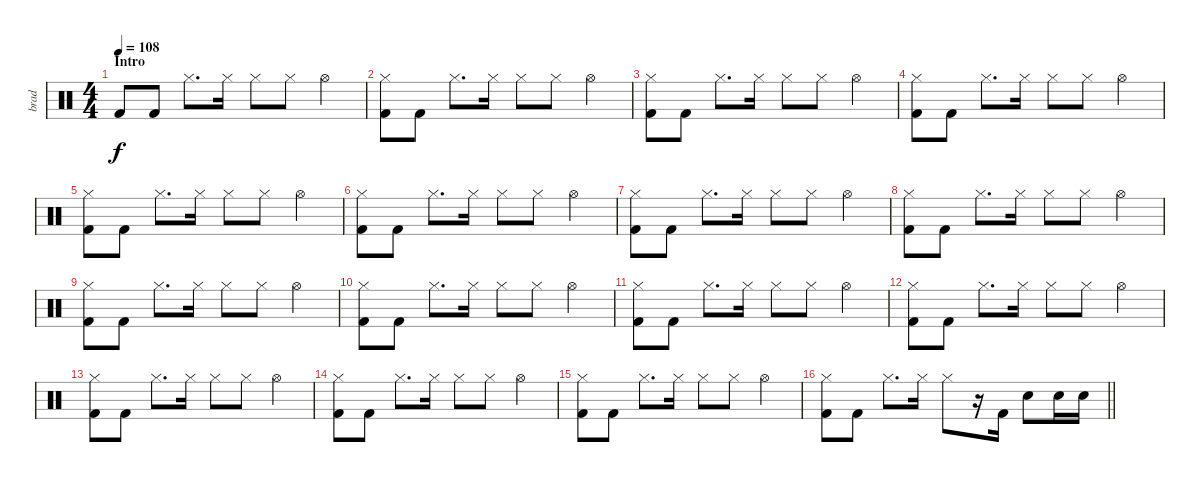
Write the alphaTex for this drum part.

\track ("brad" "brad") {instrument percussion}
\staff {score}
\articulation defaults
\ts (4 4)
\section ("" "Intro")
\tempo 108
\clef neutral
\ks c "Kick (hit) 2".8{dy f} "Kick (hit) 2".8 "Hi-Hat (closed)".8{d} "Hi-Hat (closed)".16 "Hi-Hat (closed)".8 "Hi-Hat (closed)".8 "Hi-Hat (open)".4
|
("Hi-Hat (closed)" "Kick (hit) 2").8 "Kick (hit) 2".8 "Hi-Hat (closed)".8{d} "Hi-Hat (closed)".16 "Hi-Hat (closed)".8 "Hi-Hat (closed)".8 "Hi-Hat (open)".4 |
("Hi-Hat (closed)" "Kick (hit) 2").8 "Kick (hit) 2".8 "Hi-Hat (closed)".8{d} "Hi-Hat (closed)".16 "Hi-Hat (closed)".8 "Hi-Hat (closed)".8 "Hi-Hat (open)".4 |
("Hi-Hat (closed)" "Kick (hit) 2").8 "Kick (hit) 2".8 "Hi-Hat (closed)".8{d} "Hi-Hat (closed)".16 "Hi-Hat (closed)".8 "Hi-Hat (closed)".8 "Hi-Hat (open)".4 |
("Hi-Hat (closed)" "Kick (hit) 2").8 "Kick (hit) 2".8 "Hi-Hat (closed)".8{d} "Hi-Hat (closed)".16 "Hi-Hat (closed)".8 "Hi-Hat (closed)".8 "Hi-Hat (open)".4 |
("Hi-Hat (closed)" "Kick (hit) 2").8 "Kick (hit) 2".8 "Hi-Hat (closed)".8{d} "Hi-Hat (closed)".16 "Hi-Hat (closed)".8 "Hi-Hat (closed)".8 "Hi-Hat (open)".4 |
("Hi-Hat (closed)" "Kick (hit) 2").8 "Kick (hit) 2".8 "Hi-Hat (closed)".8{d} "Hi-Hat (closed)".16 "Hi-Hat (closed)".8 "Hi-Hat (closed)".8 "Hi-Hat (open)".4 |
("Hi-Hat (closed)" "Kick (hit) 2").8 "Kick (hit) 2".8 "Hi-Hat (closed)".8{d} "Hi-Hat (closed)".16 "Hi-Hat (closed)".8 "Hi-Hat (closed)".8 "Hi-Hat (open)".4 |
("Hi-Hat (closed)" "Kick (hit) 2").8 "Kick (hit) 2".8 "Hi-Hat (closed)".8{d} "Hi-Hat (closed)".16 "Hi-Hat (closed)".8 "Hi-Hat (closed)".8 "Hi-Hat (open)".4 |
("Hi-Hat (closed)" "Kick (hit) 2").8 "Kick (hit) 2".8 "Hi-Hat (closed)".8{d} "Hi-Hat (closed)".16 "Hi-Hat (closed)".8 "Hi-Hat (closed)".8 "Hi-Hat (open)".4 |
("Hi-Hat (closed)" "Kick (hit) 2").8 "Kick (hit) 2".8 "Hi-Hat (closed)".8{d} "Hi-Hat (closed)".16 "Hi-Hat (closed)".8 "Hi-Hat (closed)".8 "Hi-Hat (open)".4 |
("Hi-Hat (closed)" "Kick (hit) 2").8 "Kick (hit) 2".8 "Hi-Hat (closed)".8{d} "Hi-Hat (closed)".16 "Hi-Hat (closed)".8 "Hi-Hat (closed)".8 "Hi-Hat (open)".4 |
("Hi-Hat (closed)" "Kick (hit) 2").8 "Kick (hit) 2".8 "Hi-Hat (closed)".8{d} "Hi-Hat (closed)".16 "Hi-Hat (closed)".8 "Hi-Hat (closed)".8 "Hi-Hat (open)".4 |
("Hi-Hat (closed)" "Kick (hit) 2").8 "Kick (hit) 2".8 "Hi-Hat (closed)".8{d} "Hi-Hat (closed)".16 "Hi-Hat (closed)".8 "Hi-Hat (closed)".8 "Hi-Hat (open)".4 |
("Hi-Hat (closed)" "Kick (hit) 2").8 "Kick (hit) 2".8 "Hi-Hat (closed)".8{d} "Hi-Hat (closed)".16 "Hi-Hat (closed)".8 "Hi-Hat (closed)".8 "Hi-Hat (open)".4 |
\barLineRight lightlight
("Hi-Hat (closed)" "Kick (hit) 2").8 "Kick (hit) 2".8 "Hi-Hat (closed)".8{d} "Hi-Hat (closed)".16 "Hi-Hat (closed)".8 r.16 "Kick (hit) 2".16 "Electric Snare (hit)".8 "Electric Snare (hit)".16 "Electric Snare (hit)".16
